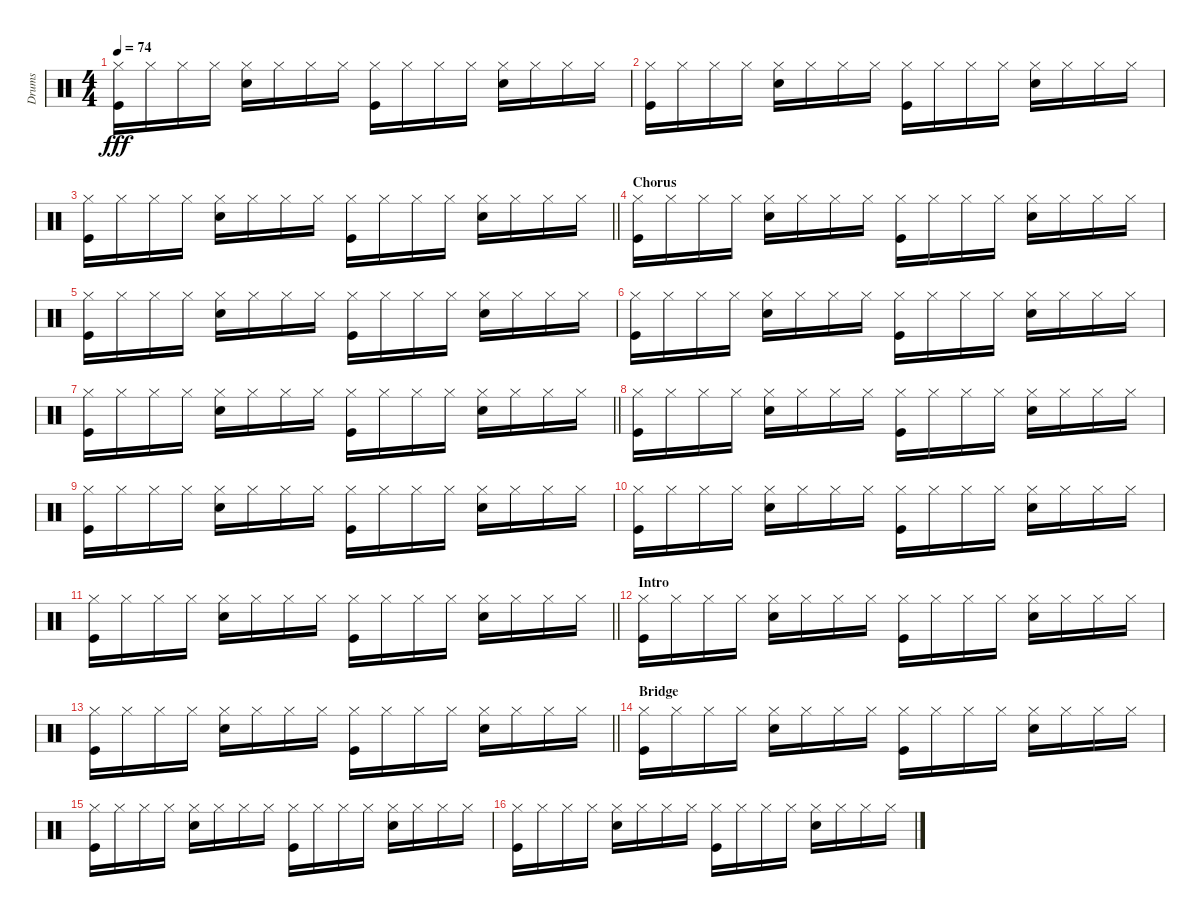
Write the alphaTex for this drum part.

\track ("Drums" "Drums") {instrument percussion}
\staff {score}
\articulation defaults
\ts (4 4)
\tempo 74
\clef neutral
\ks c
("Hi-Hat (closed)" "Kick (hit)").16{dy fff} "Hi-Hat (closed)".16 "Hi-Hat (closed)".16 "Hi-Hat (closed)".16 ("Hi-Hat (closed)" "Snare (hit) 2").16 "Hi-Hat (closed)".16 "Hi-Hat (closed)".16 "Hi-Hat (closed)".16 ("Hi-Hat (closed)" "Kick (hit)").16 "Hi-Hat (closed)".16 "Hi-Hat (closed)".16 "Hi-Hat (closed)".16 ("Hi-Hat (closed)" "Snare (hit) 2").16 "Hi-Hat (closed)".16 "Hi-Hat (closed)".16 "Hi-Hat (closed)".16 |
("Hi-Hat (closed)" "Kick (hit)").16 "Hi-Hat (closed)".16 "Hi-Hat (closed)".16 "Hi-Hat (closed)".16 ("Hi-Hat (closed)" "Snare (hit) 2").16 "Hi-Hat (closed)".16 "Hi-Hat (closed)".16 "Hi-Hat (closed)".16 ("Hi-Hat (closed)" "Kick (hit)").16 "Hi-Hat (closed)".16 "Hi-Hat (closed)".16 "Hi-Hat (closed)".16 ("Hi-Hat (closed)" "Snare (hit) 2").16 "Hi-Hat (closed)".16 "Hi-Hat (closed)".16 "Hi-Hat (closed)".16 |
\barLineRight lightlight
("Hi-Hat (closed)" "Kick (hit)").16 "Hi-Hat (closed)".16 "Hi-Hat (closed)".16 "Hi-Hat (closed)".16 ("Hi-Hat (closed)" "Snare (hit) 2").16 "Hi-Hat (closed)".16 "Hi-Hat (closed)".16 "Hi-Hat (closed)".16 ("Hi-Hat (closed)" "Kick (hit)").16 "Hi-Hat (closed)".16 "Hi-Hat (closed)".16 "Hi-Hat (closed)".16 ("Hi-Hat (closed)" "Snare (hit) 2").16 "Hi-Hat (closed)".16 "Hi-Hat (closed)".16 "Hi-Hat (closed)".16 |
\section ("" "Chorus")
("Hi-Hat (closed)" "Kick (hit)").16 "Hi-Hat (closed)".16 "Hi-Hat (closed)".16 "Hi-Hat (closed)".16 ("Hi-Hat (closed)" "Snare (hit) 2").16 "Hi-Hat (closed)".16 "Hi-Hat (closed)".16 "Hi-Hat (closed)".16 ("Hi-Hat (closed)" "Kick (hit)").16 "Hi-Hat (closed)".16 "Hi-Hat (closed)".16 "Hi-Hat (closed)".16 ("Hi-Hat (closed)" "Snare (hit) 2").16 "Hi-Hat (closed)".16 "Hi-Hat (closed)".16 "Hi-Hat (closed)".16 |
("Hi-Hat (closed)" "Kick (hit)").16 "Hi-Hat (closed)".16 "Hi-Hat (closed)".16 "Hi-Hat (closed)".16 ("Hi-Hat (closed)" "Snare (hit) 2").16 "Hi-Hat (closed)".16 "Hi-Hat (closed)".16 "Hi-Hat (closed)".16 ("Hi-Hat (closed)" "Kick (hit)").16 "Hi-Hat (closed)".16 "Hi-Hat (closed)".16 "Hi-Hat (closed)".16 ("Hi-Hat (closed)" "Snare (hit) 2").16 "Hi-Hat (closed)".16 "Hi-Hat (closed)".16 "Hi-Hat (closed)".16 |
("Hi-Hat (closed)" "Kick (hit)").16 "Hi-Hat (closed)".16 "Hi-Hat (closed)".16 "Hi-Hat (closed)".16 ("Hi-Hat (closed)" "Snare (hit) 2").16 "Hi-Hat (closed)".16 "Hi-Hat (closed)".16 "Hi-Hat (closed)".16 ("Hi-Hat (closed)" "Kick (hit)").16 "Hi-Hat (closed)".16 "Hi-Hat (closed)".16 "Hi-Hat (closed)".16 ("Hi-Hat (closed)" "Snare (hit) 2").16 "Hi-Hat (closed)".16 "Hi-Hat (closed)".16 "Hi-Hat (closed)".16 |
\barLineRight lightlight
("Hi-Hat (closed)" "Kick (hit)").16 "Hi-Hat (closed)".16 "Hi-Hat (closed)".16 "Hi-Hat (closed)".16 ("Hi-Hat (closed)" "Snare (hit) 2").16 "Hi-Hat (closed)".16 "Hi-Hat (closed)".16 "Hi-Hat (closed)".16 ("Hi-Hat (closed)" "Kick (hit)").16 "Hi-Hat (closed)".16 "Hi-Hat (closed)".16 "Hi-Hat (closed)".16 ("Hi-Hat (closed)" "Snare (hit) 2").16 "Hi-Hat (closed)".16 "Hi-Hat (closed)".16 "Hi-Hat (closed)".16 |
("Hi-Hat (closed)" "Kick (hit)").16 "Hi-Hat (closed)".16 "Hi-Hat (closed)".16 "Hi-Hat (closed)".16 ("Hi-Hat (closed)" "Snare (hit) 2").16 "Hi-Hat (closed)".16 "Hi-Hat (closed)".16 "Hi-Hat (closed)".16 ("Hi-Hat (closed)" "Kick (hit)").16 "Hi-Hat (closed)".16 "Hi-Hat (closed)".16 "Hi-Hat (closed)".16 ("Hi-Hat (closed)" "Snare (hit) 2").16 "Hi-Hat (closed)".16 "Hi-Hat (closed)".16 "Hi-Hat (closed)".16 |
("Hi-Hat (closed)" "Kick (hit)").16 "Hi-Hat (closed)".16 "Hi-Hat (closed)".16 "Hi-Hat (closed)".16 ("Hi-Hat (closed)" "Snare (hit) 2").16 "Hi-Hat (closed)".16 "Hi-Hat (closed)".16 "Hi-Hat (closed)".16 ("Hi-Hat (closed)" "Kick (hit)").16 "Hi-Hat (closed)".16 "Hi-Hat (closed)".16 "Hi-Hat (closed)".16 ("Hi-Hat (closed)" "Snare (hit) 2").16 "Hi-Hat (closed)".16 "Hi-Hat (closed)".16 "Hi-Hat (closed)".16 |
("Hi-Hat (closed)" "Kick (hit)").16 "Hi-Hat (closed)".16 "Hi-Hat (closed)".16 "Hi-Hat (closed)".16 ("Hi-Hat (closed)" "Snare (hit) 2").16 "Hi-Hat (closed)".16 "Hi-Hat (closed)".16 "Hi-Hat (closed)".16 ("Hi-Hat (closed)" "Kick (hit)").16 "Hi-Hat (closed)".16 "Hi-Hat (closed)".16 "Hi-Hat (closed)".16 ("Hi-Hat (closed)" "Snare (hit) 2").16 "Hi-Hat (closed)".16 "Hi-Hat (closed)".16 "Hi-Hat (closed)".16 |
\barLineRight lightlight
("Hi-Hat (closed)" "Kick (hit)").16 "Hi-Hat (closed)".16 "Hi-Hat (closed)".16 "Hi-Hat (closed)".16 ("Hi-Hat (closed)" "Snare (hit) 2").16 "Hi-Hat (closed)".16 "Hi-Hat (closed)".16 "Hi-Hat (closed)".16 ("Hi-Hat (closed)" "Kick (hit)").16 "Hi-Hat (closed)".16 "Hi-Hat (closed)".16 "Hi-Hat (closed)".16 ("Hi-Hat (closed)" "Snare (hit) 2").16 "Hi-Hat (closed)".16 "Hi-Hat (closed)".16 "Hi-Hat (closed)".16 |
\section ("" "Intro")
("Hi-Hat (closed)" "Kick (hit)").16 "Hi-Hat (closed)".16 "Hi-Hat (closed)".16 "Hi-Hat (closed)".16 ("Hi-Hat (closed)" "Snare (hit) 2").16 "Hi-Hat (closed)".16 "Hi-Hat (closed)".16 "Hi-Hat (closed)".16 ("Hi-Hat (closed)" "Kick (hit)").16 "Hi-Hat (closed)".16 "Hi-Hat (closed)".16 "Hi-Hat (closed)".16 ("Hi-Hat (closed)" "Snare (hit) 2").16 "Hi-Hat (closed)".16 "Hi-Hat (closed)".16 "Hi-Hat (closed)".16 |
\barLineRight lightlight
("Hi-Hat (closed)" "Kick (hit)").16 "Hi-Hat (closed)".16 "Hi-Hat (closed)".16 "Hi-Hat (closed)".16 ("Hi-Hat (closed)" "Snare (hit) 2").16 "Hi-Hat (closed)".16 "Hi-Hat (closed)".16 "Hi-Hat (closed)".16 ("Hi-Hat (closed)" "Kick (hit)").16 "Hi-Hat (closed)".16 "Hi-Hat (closed)".16 "Hi-Hat (closed)".16 ("Hi-Hat (closed)" "Snare (hit) 2").16 "Hi-Hat (closed)".16 "Hi-Hat (closed)".16 "Hi-Hat (closed)".16 |
\section ("" "Bridge")
("Hi-Hat (closed)" "Kick (hit)").16 "Hi-Hat (closed)".16 "Hi-Hat (closed)".16 "Hi-Hat (closed)".16 ("Hi-Hat (closed)" "Snare (hit) 2").16 "Hi-Hat (closed)".16 "Hi-Hat (closed)".16 "Hi-Hat (closed)".16 ("Hi-Hat (closed)" "Kick (hit)").16 "Hi-Hat (closed)".16 "Hi-Hat (closed)".16 "Hi-Hat (closed)".16 ("Hi-Hat (closed)" "Snare (hit) 2").16 "Hi-Hat (closed)".16 "Hi-Hat (closed)".16 "Hi-Hat (closed)".16 |
("Hi-Hat (closed)" "Kick (hit)").16 "Hi-Hat (closed)".16 "Hi-Hat (closed)".16 "Hi-Hat (closed)".16 ("Hi-Hat (closed)" "Snare (hit) 2").16 "Hi-Hat (closed)".16 "Hi-Hat (closed)".16 "Hi-Hat (closed)".16 ("Hi-Hat (closed)" "Kick (hit)").16 "Hi-Hat (closed)".16 "Hi-Hat (closed)".16 "Hi-Hat (closed)".16 ("Hi-Hat (closed)" "Snare (hit) 2").16 "Hi-Hat (closed)".16 "Hi-Hat (closed)".16 "Hi-Hat (closed)".16 |
("Hi-Hat (closed)" "Kick (hit)").16 "Hi-Hat (closed)".16 "Hi-Hat (closed)".16 "Hi-Hat (closed)".16 ("Hi-Hat (closed)" "Snare (hit) 2").16 "Hi-Hat (closed)".16 "Hi-Hat (closed)".16 "Hi-Hat (closed)".16 ("Hi-Hat (closed)" "Kick (hit)").16 "Hi-Hat (closed)".16 "Hi-Hat (closed)".16 "Hi-Hat (closed)".16 ("Hi-Hat (closed)" "Snare (hit) 2").16 "Hi-Hat (closed)".16 "Hi-Hat (closed)".16 "Hi-Hat (closed)".16
